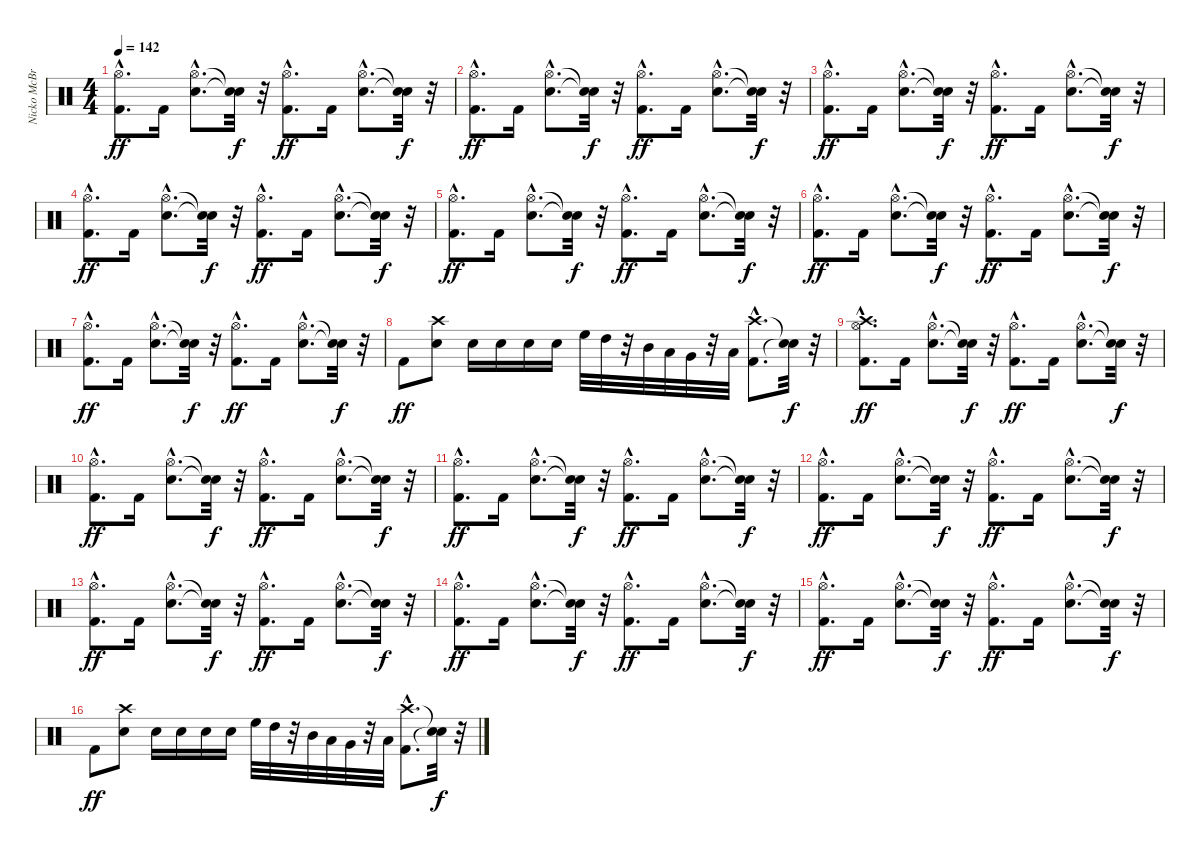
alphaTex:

\track ("Nicko McBrain" "Nicko McBr") {instrument percussion}
\staff {score}
\articulation defaults
\ts (4 4)
\tempo 142
\clef neutral
\ks c
("Kick (hit) 2"{hac} "Hi-Hat (open)"{hac}).8{d dy ff} "Kick (hit) 2".16 ("Snare (hit) 2"{hac} "Hi-Hat (open)"{hac}).8{d} ("Snare (hit)"{t} "Snare (hit)"{t}).32{dy f} r.32 ("Kick (hit) 2"{hac} "Hi-Hat (open)"{hac}).8{d dy ff} "Kick (hit) 2".16 ("Snare (hit) 2"{hac} "Hi-Hat (open)"{hac}).8{d} ("Snare (hit)"{t} "Snare (hit)"{t}).32{dy f} r.32 |
("Kick (hit) 2"{hac} "Hi-Hat (open)"{hac}).8{d dy ff} "Kick (hit) 2".16 ("Snare (hit) 2"{hac} "Hi-Hat (open)"{hac}).8{d} ("Snare (hit)"{t} "Snare (hit)"{t}).32{dy f} r.32 ("Kick (hit) 2"{hac} "Hi-Hat (open)"{hac}).8{d dy ff} "Kick (hit) 2".16 ("Snare (hit) 2"{hac} "Hi-Hat (open)"{hac}).8{d} ("Snare (hit)"{t} "Snare (hit)"{t}).32{dy f} r.32 |
("Kick (hit) 2"{hac} "Hi-Hat (open)"{hac}).8{d dy ff} "Kick (hit) 2".16 ("Snare (hit) 2"{hac} "Hi-Hat (open)"{hac}).8{d} ("Snare (hit)"{t} "Snare (hit)"{t}).32{dy f} r.32 ("Kick (hit) 2"{hac} "Hi-Hat (open)"{hac}).8{d dy ff} "Kick (hit) 2".16 ("Snare (hit) 2"{hac} "Hi-Hat (open)"{hac}).8{d} ("Snare (hit)"{t} "Snare (hit)"{t}).32{dy f} r.32 |
("Kick (hit) 2"{hac} "Hi-Hat (open)"{hac}).8{d dy ff} "Kick (hit) 2".16 ("Snare (hit) 2"{hac} "Hi-Hat (open)"{hac}).8{d} ("Snare (hit)"{t} "Snare (hit)"{t}).32{dy f} r.32 ("Kick (hit) 2"{hac} "Hi-Hat (open)"{hac}).8{d dy ff} "Kick (hit) 2".16 ("Snare (hit) 2"{hac} "Hi-Hat (open)"{hac}).8{d} ("Snare (hit)"{t} "Snare (hit)"{t}).32{dy f} r.32 |
("Kick (hit) 2"{hac} "Hi-Hat (open)"{hac}).8{d dy ff} "Kick (hit) 2".16 ("Snare (hit) 2"{hac} "Hi-Hat (open)"{hac}).8{d} ("Snare (hit)"{t} "Snare (hit)"{t}).32{dy f} r.32 ("Kick (hit) 2"{hac} "Hi-Hat (open)"{hac}).8{d dy ff} "Kick (hit) 2".16 ("Snare (hit) 2"{hac} "Hi-Hat (open)"{hac}).8{d} ("Snare (hit)"{t} "Snare (hit)"{t}).32{dy f} r.32 |
("Kick (hit) 2"{hac} "Hi-Hat (open)"{hac}).8{d dy ff} "Kick (hit) 2".16 ("Snare (hit) 2"{hac} "Hi-Hat (open)"{hac}).8{d} ("Snare (hit)"{t} "Snare (hit)"{t}).32{dy f} r.32 ("Kick (hit) 2"{hac} "Hi-Hat (open)"{hac}).8{d dy ff} "Kick (hit) 2".16 ("Snare (hit) 2"{hac} "Hi-Hat (open)"{hac}).8{d} ("Snare (hit)"{t} "Snare (hit)"{t}).32{dy f} r.32 |
("Kick (hit) 2"{hac} "Hi-Hat (open)"{hac}).8{d dy ff} "Kick (hit) 2".16 ("Snare (hit) 2"{hac} "Hi-Hat (open)"{hac}).8{d} ("Snare (hit)"{t} "Snare (hit)"{t}).32{dy f} r.32 ("Kick (hit) 2"{hac} "Hi-Hat (open)"{hac}).8{d dy ff} "Kick (hit) 2".16 ("Snare (hit) 2"{hac} "Hi-Hat (open)"{hac}).8{d} ("Snare (hit)"{t} "Snare (hit)"{t}).32{dy f} r.32 |
"Kick (hit) 2".8{dy ff} ("Snare (hit) 2" "Crash high (hit)").8 "Snare (hit) 2".16 "Snare (hit) 2".16 "Snare (hit) 2".16 "Snare (hit) 2".16 "High Floor Tom (hit)".32 "High Tom (hit)".32 r.32 "Mid Tom (hit)".32 "Low Tom (hit)".32 "Very Low Tom (hit)".32 r.32 "Low Floor Tom (hit)".32 ("Kick (hit) 2"{hac} "Crash high (hit)"{hac}).8{d} ("Snare (hit)"{t} "Snare (hit)"{t}).32{dy f} r.32 |
("Kick (hit) 2"{hac} "Hi-Hat (open)"{hac} "Crash high (hit)"{hac}).8{d dy ff} "Kick (hit) 2".16 ("Snare (hit) 2"{hac} "Hi-Hat (open)"{hac}).8{d} ("Snare (hit)"{t} "Snare (hit)"{t}).32{dy f} r.32 ("Kick (hit) 2"{hac} "Hi-Hat (open)"{hac}).8{d dy ff} "Kick (hit) 2".16 ("Snare (hit) 2"{hac} "Hi-Hat (open)"{hac}).8{d} ("Snare (hit)"{t} "Snare (hit)"{t}).32{dy f} r.32 |
("Kick (hit) 2"{hac} "Hi-Hat (open)"{hac}).8{d dy ff} "Kick (hit) 2".16 ("Snare (hit) 2"{hac} "Hi-Hat (open)"{hac}).8{d} ("Snare (hit)"{t} "Snare (hit)"{t}).32{dy f} r.32 ("Kick (hit) 2"{hac} "Hi-Hat (open)"{hac}).8{d dy ff} "Kick (hit) 2".16 ("Snare (hit) 2"{hac} "Hi-Hat (open)"{hac}).8{d} ("Snare (hit)"{t} "Snare (hit)"{t}).32{dy f} r.32 |
("Kick (hit) 2"{hac} "Hi-Hat (open)"{hac}).8{d dy ff} "Kick (hit) 2".16 ("Snare (hit) 2"{hac} "Hi-Hat (open)"{hac}).8{d} ("Snare (hit)"{t} "Snare (hit)"{t}).32{dy f} r.32 ("Kick (hit) 2"{hac} "Hi-Hat (open)"{hac}).8{d dy ff} "Kick (hit) 2".16 ("Snare (hit) 2"{hac} "Hi-Hat (open)"{hac}).8{d} ("Snare (hit)"{t} "Snare (hit)"{t}).32{dy f} r.32 |
("Kick (hit) 2"{hac} "Hi-Hat (open)"{hac}).8{d dy ff} "Kick (hit) 2".16 ("Snare (hit) 2"{hac} "Hi-Hat (open)"{hac}).8{d} ("Snare (hit)"{t} "Snare (hit)"{t}).32{dy f} r.32 ("Kick (hit) 2"{hac} "Hi-Hat (open)"{hac}).8{d dy ff} "Kick (hit) 2".16 ("Snare (hit) 2"{hac} "Hi-Hat (open)"{hac}).8{d} ("Snare (hit)"{t} "Snare (hit)"{t}).32{dy f} r.32 |
("Kick (hit) 2"{hac} "Hi-Hat (open)"{hac}).8{d dy ff} "Kick (hit) 2".16 ("Snare (hit) 2"{hac} "Hi-Hat (open)"{hac}).8{d} ("Snare (hit)"{t} "Snare (hit)"{t}).32{dy f} r.32 ("Kick (hit) 2"{hac} "Hi-Hat (open)"{hac}).8{d dy ff} "Kick (hit) 2".16 ("Snare (hit) 2"{hac} "Hi-Hat (open)"{hac}).8{d} ("Snare (hit)"{t} "Snare (hit)"{t}).32{dy f} r.32 |
("Kick (hit) 2"{hac} "Hi-Hat (open)"{hac}).8{d dy ff} "Kick (hit) 2".16 ("Snare (hit) 2"{hac} "Hi-Hat (open)"{hac}).8{d} ("Snare (hit)"{t} "Snare (hit)"{t}).32{dy f} r.32 ("Kick (hit) 2"{hac} "Hi-Hat (open)"{hac}).8{d dy ff} "Kick (hit) 2".16 ("Snare (hit) 2"{hac} "Hi-Hat (open)"{hac}).8{d} ("Snare (hit)"{t} "Snare (hit)"{t}).32{dy f} r.32 |
("Kick (hit) 2"{hac} "Hi-Hat (open)"{hac}).8{d dy ff} "Kick (hit) 2".16 ("Snare (hit) 2"{hac} "Hi-Hat (open)"{hac}).8{d} ("Snare (hit)"{t} "Snare (hit)"{t}).32{dy f} r.32 ("Kick (hit) 2"{hac} "Hi-Hat (open)"{hac}).8{d dy ff} "Kick (hit) 2".16 ("Snare (hit) 2"{hac} "Hi-Hat (open)"{hac}).8{d} ("Snare (hit)"{t} "Snare (hit)"{t}).32{dy f} r.32 |
"Kick (hit) 2".8{dy ff} ("Snare (hit) 2" "Crash high (hit)").8 "Snare (hit) 2".16 "Snare (hit) 2".16 "Snare (hit) 2".16 "Snare (hit) 2".16 "High Floor Tom (hit)".32 "High Tom (hit)".32 r.32 "Mid Tom (hit)".32 "Low Tom (hit)".32 "Very Low Tom (hit)".32 r.32 "Low Floor Tom (hit)".32 ("Kick (hit) 2"{hac} "Crash high (hit)"{hac}).8{d} ("Snare (hit)"{t} "Snare (hit)"{t}).32{dy f} r.32
